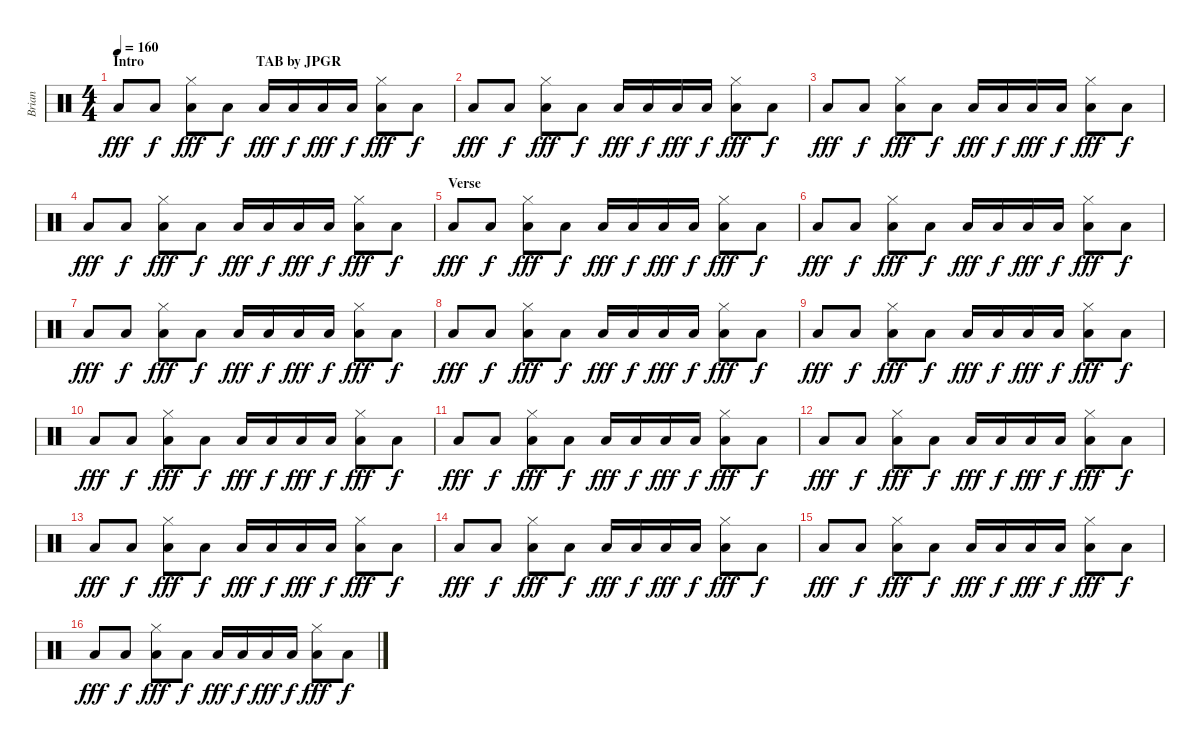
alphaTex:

\track ("Brian" "Brian") {instrument percussion}
\staff {score}
\articulation defaults
\ts (4 4)
\section ("" "Intro                                TAB by JPGR")
\tempo 160
\clef neutral
\ks c "Low Tom (hit)".8{dy fff volume 16} "Low Tom (hit)".8{dy f}
("Hi-Hat (closed)" "Low Tom (hit)").8{dy fff} "Low Tom (hit)".8{dy f} "Low Tom (hit)".16{dy fff} "Low Tom (hit)".16{dy f} "Low Tom (hit)".16{dy fff} "Low Tom (hit)".16{dy f} ("Hi-Hat (closed)" "Low Tom (hit)").8{dy fff} "Low Tom (hit)".8{dy f} |
"Low Tom (hit)".8{dy fff} "Low Tom (hit)".8{dy f} ("Hi-Hat (closed)" "Low Tom (hit)").8{dy fff} "Low Tom (hit)".8{dy f} "Low Tom (hit)".16{dy fff} "Low Tom (hit)".16{dy f} "Low Tom (hit)".16{dy fff} "Low Tom (hit)".16{dy f} ("Hi-Hat (closed)" "Low Tom (hit)").8{dy fff} "Low Tom (hit)".8{dy f} |
"Low Tom (hit)".8{dy fff volume 14} "Low Tom (hit)".8{dy f} ("Hi-Hat (closed)" "Low Tom (hit)").8{dy fff} "Low Tom (hit)".8{dy f} "Low Tom (hit)".16{dy fff} "Low Tom (hit)".16{dy f} "Low Tom (hit)".16{dy fff} "Low Tom (hit)".16{dy f} ("Hi-Hat (closed)" "Low Tom (hit)").8{dy fff} "Low Tom (hit)".8{dy f} |
"Low Tom (hit)".8{dy fff} "Low Tom (hit)".8{dy f} ("Hi-Hat (closed)" "Low Tom (hit)").8{dy fff} "Low Tom (hit)".8{dy f} "Low Tom (hit)".16{dy fff} "Low Tom (hit)".16{dy f} "Low Tom (hit)".16{dy fff} "Low Tom (hit)".16{dy f} ("Hi-Hat (closed)" "Low Tom (hit)").8{dy fff} "Low Tom (hit)".8{dy f} |
\section ("" "Verse")
"Low Tom (hit)".8{dy fff} "Low Tom (hit)".8{dy f} ("Hi-Hat (closed)" "Low Tom (hit)").8{dy fff} "Low Tom (hit)".8{dy f} "Low Tom (hit)".16{dy fff} "Low Tom (hit)".16{dy f} "Low Tom (hit)".16{dy fff} "Low Tom (hit)".16{dy f} ("Hi-Hat (closed)" "Low Tom (hit)").8{dy fff} "Low Tom (hit)".8{dy f} |
"Low Tom (hit)".8{dy fff} "Low Tom (hit)".8{dy f} ("Hi-Hat (closed)" "Low Tom (hit)").8{dy fff} "Low Tom (hit)".8{dy f} "Low Tom (hit)".16{dy fff} "Low Tom (hit)".16{dy f} "Low Tom (hit)".16{dy fff} "Low Tom (hit)".16{dy f} ("Hi-Hat (closed)" "Low Tom (hit)").8{dy fff} "Low Tom (hit)".8{dy f} |
"Low Tom (hit)".8{dy fff} "Low Tom (hit)".8{dy f} ("Hi-Hat (closed)" "Low Tom (hit)").8{dy fff} "Low Tom (hit)".8{dy f} "Low Tom (hit)".16{dy fff} "Low Tom (hit)".16{dy f} "Low Tom (hit)".16{dy fff} "Low Tom (hit)".16{dy f} ("Hi-Hat (closed)" "Low Tom (hit)").8{dy fff} "Low Tom (hit)".8{dy f} |
"Low Tom (hit)".8{dy fff} "Low Tom (hit)".8{dy f} ("Hi-Hat (closed)" "Low Tom (hit)").8{dy fff} "Low Tom (hit)".8{dy f} "Low Tom (hit)".16{dy fff} "Low Tom (hit)".16{dy f} "Low Tom (hit)".16{dy fff} "Low Tom (hit)".16{dy f} ("Hi-Hat (closed)" "Low Tom (hit)").8{dy fff} "Low Tom (hit)".8{dy f} |
"Low Tom (hit)".8{dy fff} "Low Tom (hit)".8{dy f} ("Hi-Hat (closed)" "Low Tom (hit)").8{dy fff} "Low Tom (hit)".8{dy f} "Low Tom (hit)".16{dy fff} "Low Tom (hit)".16{dy f} "Low Tom (hit)".16{dy fff} "Low Tom (hit)".16{dy f} ("Hi-Hat (closed)" "Low Tom (hit)").8{dy fff} "Low Tom (hit)".8{dy f} |
"Low Tom (hit)".8{dy fff} "Low Tom (hit)".8{dy f} ("Hi-Hat (closed)" "Low Tom (hit)").8{dy fff} "Low Tom (hit)".8{dy f} "Low Tom (hit)".16{dy fff} "Low Tom (hit)".16{dy f} "Low Tom (hit)".16{dy fff} "Low Tom (hit)".16{dy f} ("Hi-Hat (closed)" "Low Tom (hit)").8{dy fff} "Low Tom (hit)".8{dy f} |
"Low Tom (hit)".8{dy fff} "Low Tom (hit)".8{dy f} ("Hi-Hat (closed)" "Low Tom (hit)").8{dy fff} "Low Tom (hit)".8{dy f} "Low Tom (hit)".16{dy fff} "Low Tom (hit)".16{dy f} "Low Tom (hit)".16{dy fff} "Low Tom (hit)".16{dy f} ("Hi-Hat (closed)" "Low Tom (hit)").8{dy fff} "Low Tom (hit)".8{dy f} |
"Low Tom (hit)".8{dy fff} "Low Tom (hit)".8{dy f} ("Hi-Hat (closed)" "Low Tom (hit)").8{dy fff} "Low Tom (hit)".8{dy f} "Low Tom (hit)".16{dy fff} "Low Tom (hit)".16{dy f} "Low Tom (hit)".16{dy fff} "Low Tom (hit)".16{dy f} ("Hi-Hat (closed)" "Low Tom (hit)").8{dy fff} "Low Tom (hit)".8{dy f} |
"Low Tom (hit)".8{dy fff} "Low Tom (hit)".8{dy f} ("Hi-Hat (closed)" "Low Tom (hit)").8{dy fff} "Low Tom (hit)".8{dy f} "Low Tom (hit)".16{dy fff} "Low Tom (hit)".16{dy f} "Low Tom (hit)".16{dy fff} "Low Tom (hit)".16{dy f} ("Hi-Hat (closed)" "Low Tom (hit)").8{dy fff} "Low Tom (hit)".8{dy f} |
"Low Tom (hit)".8{dy fff} "Low Tom (hit)".8{dy f} ("Hi-Hat (closed)" "Low Tom (hit)").8{dy fff} "Low Tom (hit)".8{dy f} "Low Tom (hit)".16{dy fff} "Low Tom (hit)".16{dy f} "Low Tom (hit)".16{dy fff} "Low Tom (hit)".16{dy f} ("Hi-Hat (closed)" "Low Tom (hit)").8{dy fff} "Low Tom (hit)".8{dy f} |
"Low Tom (hit)".8{dy fff} "Low Tom (hit)".8{dy f} ("Hi-Hat (closed)" "Low Tom (hit)").8{dy fff} "Low Tom (hit)".8{dy f} "Low Tom (hit)".16{dy fff} "Low Tom (hit)".16{dy f} "Low Tom (hit)".16{dy fff} "Low Tom (hit)".16{dy f} ("Hi-Hat (closed)" "Low Tom (hit)").8{dy fff} "Low Tom (hit)".8{dy f} |
"Low Tom (hit)".8{dy fff} "Low Tom (hit)".8{dy f} ("Hi-Hat (closed)" "Low Tom (hit)").8{dy fff} "Low Tom (hit)".8{dy f} "Low Tom (hit)".16{dy fff} "Low Tom (hit)".16{dy f} "Low Tom (hit)".16{dy fff} "Low Tom (hit)".16{dy f} ("Hi-Hat (closed)" "Low Tom (hit)").8{dy fff} "Low Tom (hit)".8{dy f}
